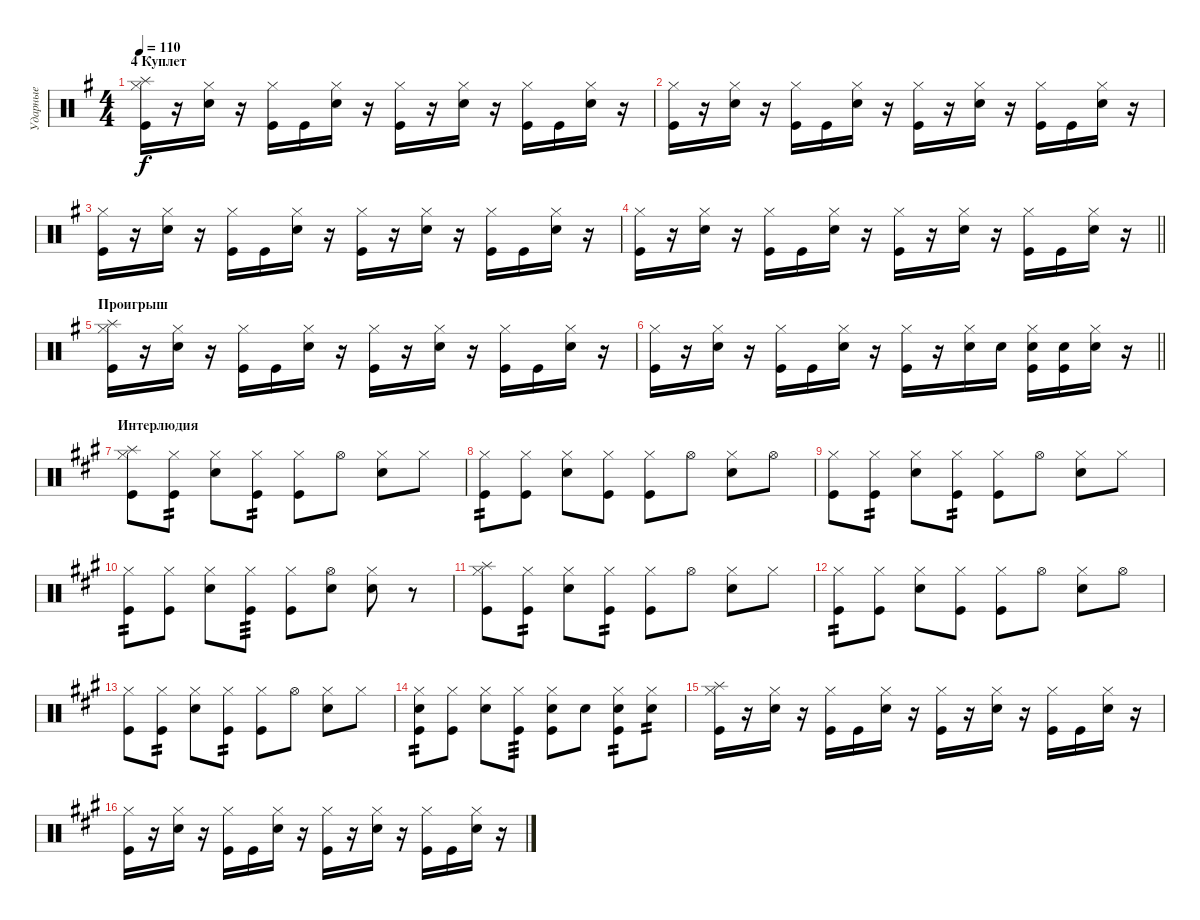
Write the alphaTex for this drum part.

\track ("Ударные" "Ударные") {instrument percussion}
\staff {score}
\articulation defaults
\ts (4 4)
\section ("" "4 Куплет")
\tempo 110
\clef neutral
\ks eminor
("Hi-Hat (closed)" "Splash (hit)" "Kick (hit)").16{dy f} r.16 ("Hi-Hat (closed)" "Electric Snare (hit)").16 r.16 ("Hi-Hat (closed)" "Kick (hit)").16 "Kick (hit)".16 ("Hi-Hat (closed)" "Electric Snare (hit)").16 r.16 ("Hi-Hat (closed)" "Kick (hit)").16 r.16 ("Hi-Hat (closed)" "Electric Snare (hit)").16 r.16 ("Hi-Hat (closed)" "Kick (hit)").16 "Kick (hit)".16 ("Hi-Hat (closed)" "Electric Snare (hit)").16 r.16 |
("Hi-Hat (closed)" "Kick (hit)").16 r.16 ("Hi-Hat (closed)" "Electric Snare (hit)").16 r.16 ("Hi-Hat (closed)" "Kick (hit)").16 "Kick (hit)".16 ("Hi-Hat (closed)" "Electric Snare (hit)").16 r.16 ("Hi-Hat (closed)" "Kick (hit)").16 r.16 ("Hi-Hat (closed)" "Electric Snare (hit)").16 r.16 ("Hi-Hat (closed)" "Kick (hit)").16 "Kick (hit)".16 ("Hi-Hat (closed)" "Electric Snare (hit)").16 r.16 |
("Hi-Hat (closed)" "Kick (hit)").16 r.16 ("Hi-Hat (closed)" "Electric Snare (hit)").16 r.16 ("Hi-Hat (closed)" "Kick (hit)").16 "Kick (hit)".16 ("Hi-Hat (closed)" "Electric Snare (hit)").16 r.16 ("Hi-Hat (closed)" "Kick (hit)").16 r.16 ("Hi-Hat (closed)" "Electric Snare (hit)").16 r.16 ("Hi-Hat (closed)" "Kick (hit)").16 "Kick (hit)".16 ("Hi-Hat (closed)" "Electric Snare (hit)").16 r.16 |
\barLineRight lightlight
("Hi-Hat (closed)" "Kick (hit)").16 r.16 ("Hi-Hat (closed)" "Electric Snare (hit)").16 r.16 ("Hi-Hat (closed)" "Kick (hit)").16 "Kick (hit)".16 ("Hi-Hat (closed)" "Electric Snare (hit)").16 r.16 ("Hi-Hat (closed)" "Kick (hit)").16 r.16 ("Hi-Hat (closed)" "Electric Snare (hit)").16 r.16 ("Hi-Hat (closed)" "Kick (hit)").16 "Kick (hit)".16 ("Hi-Hat (closed)" "Electric Snare (hit)").16 r.16 |
\section ("" "Проигрыш")
("Hi-Hat (closed)" "Splash (hit)" "Kick (hit)").16 r.16 ("Hi-Hat (closed)" "Electric Snare (hit)").16 r.16 ("Hi-Hat (closed)" "Kick (hit)").16 "Kick (hit)".16 ("Hi-Hat (closed)" "Electric Snare (hit)").16 r.16 ("Hi-Hat (closed)" "Kick (hit)").16 r.16 ("Hi-Hat (closed)" "Electric Snare (hit)").16 r.16 ("Hi-Hat (closed)" "Kick (hit)").16 "Kick (hit)".16 ("Hi-Hat (closed)" "Electric Snare (hit)").16 r.16 |
\barLineRight lightlight
("Hi-Hat (closed)" "Kick (hit)").16 r.16 ("Hi-Hat (closed)" "Electric Snare (hit)").16 r.16 ("Hi-Hat (closed)" "Kick (hit)").16 "Kick (hit)".16 ("Hi-Hat (closed)" "Electric Snare (hit)").16 r.16 ("Hi-Hat (closed)" "Kick (hit)").16 r.16 ("Hi-Hat (closed)" "Electric Snare (hit)").16 "Electric Snare (hit)".16 ("Hi-Hat (closed)" "Electric Snare (hit)" "Kick (hit)").16 ("Electric Snare (hit)" "Kick (hit)").16 ("Hi-Hat (closed)" "Electric Snare (hit)").16 r.16 |
\section ("" "Интерлюдия")
\ks f#minor
("Hi-Hat (closed)" "Splash (hit)" "Kick (hit)").8 ("Hi-Hat (closed)" "Kick (hit)").8{tp 2} ("Hi-Hat (closed)" "Electric Snare (hit)").8 ("Hi-Hat (closed)" "Kick (hit)").8{tp 2} ("Hi-Hat (closed)" "Kick (hit)").8 "Hi-Hat (open)".8 ("Hi-Hat (closed)" "Electric Snare (hit)").8 "Hi-Hat (closed)".8 |
("Hi-Hat (closed)" "Kick (hit)").8{tp 2} ("Hi-Hat (closed)" "Kick (hit)").8 ("Hi-Hat (closed)" "Electric Snare (hit)").8 ("Hi-Hat (closed)" "Kick (hit)").8 ("Hi-Hat (closed)" "Kick (hit)").8 "Hi-Hat (open)".8 ("Hi-Hat (closed)" "Electric Snare (hit)").8 "Hi-Hat (open)".8 |
("Hi-Hat (closed)" "Kick (hit)").8 ("Hi-Hat (closed)" "Kick (hit)").8{tp 2} ("Hi-Hat (closed)" "Electric Snare (hit)").8 ("Hi-Hat (closed)" "Kick (hit)").8{tp 2} ("Hi-Hat (closed)" "Kick (hit)").8 "Hi-Hat (open)".8 ("Hi-Hat (closed)" "Electric Snare (hit)").8 "Hi-Hat (closed)".8 |
("Hi-Hat (closed)" "Kick (hit)").8{tp 2} ("Hi-Hat (closed)" "Kick (hit)").8 ("Hi-Hat (closed)" "Electric Snare (hit)").8 ("Hi-Hat (closed)" "Kick (hit)").8{tp 3} ("Hi-Hat (closed)" "Kick (hit)").8 ("Hi-Hat (open)" "Electric Snare (hit)").8 ("Hi-Hat (closed)" "Electric Snare (hit)").8 r.8 |
("Hi-Hat (closed)" "Splash (hit)" "Kick (hit)").8 ("Hi-Hat (closed)" "Kick (hit)").8{tp 2} ("Hi-Hat (closed)" "Electric Snare (hit)").8 ("Hi-Hat (closed)" "Kick (hit)").8{tp 2} ("Hi-Hat (closed)" "Kick (hit)").8 "Hi-Hat (open)".8 ("Hi-Hat (closed)" "Electric Snare (hit)").8 "Hi-Hat (closed)".8 |
("Hi-Hat (closed)" "Kick (hit)").8{tp 2} ("Hi-Hat (closed)" "Kick (hit)").8 ("Hi-Hat (closed)" "Electric Snare (hit)").8 ("Hi-Hat (closed)" "Kick (hit)").8 ("Hi-Hat (closed)" "Kick (hit)").8 "Hi-Hat (open)".8 ("Hi-Hat (closed)" "Electric Snare (hit)").8 "Hi-Hat (open)".8 |
("Hi-Hat (closed)" "Kick (hit)").8 ("Hi-Hat (closed)" "Kick (hit)").8{tp 2} ("Hi-Hat (closed)" "Electric Snare (hit)").8 ("Hi-Hat (closed)" "Kick (hit)").8{tp 2} ("Hi-Hat (closed)" "Kick (hit)").8 "Hi-Hat (open)".8 ("Hi-Hat (closed)" "Electric Snare (hit)").8 "Hi-Hat (closed)".8 |
("Hi-Hat (closed)" "Electric Snare (hit)" "Kick (hit)").8{tp 2} ("Hi-Hat (closed)" "Kick (hit)").8 ("Hi-Hat (closed)" "Electric Snare (hit)").8 ("Hi-Hat (closed)" "Kick (hit)").8{tp 3} ("Hi-Hat (closed)" "Electric Snare (hit)" "Kick (hit)").8 "Electric Snare (hit)".8 ("Hi-Hat (closed)" "Electric Snare (hit)" "Kick (hit)").8{tp 2} ("Hi-Hat (closed)" "Electric Snare (hit)").8{tp 2} |
("Hi-Hat (closed)" "Splash (hit)" "Kick (hit)").16 r.16 ("Hi-Hat (closed)" "Electric Snare (hit)").16 r.16 ("Hi-Hat (closed)" "Kick (hit)").16 "Kick (hit)".16 ("Hi-Hat (closed)" "Electric Snare (hit)").16 r.16 ("Hi-Hat (closed)" "Kick (hit)").16 r.16 ("Hi-Hat (closed)" "Electric Snare (hit)").16 r.16 ("Hi-Hat (closed)" "Kick (hit)").16 "Kick (hit)".16 ("Hi-Hat (closed)" "Electric Snare (hit)").16 r.16 |
("Hi-Hat (closed)" "Kick (hit)").16 r.16 ("Hi-Hat (closed)" "Electric Snare (hit)").16 r.16 ("Hi-Hat (closed)" "Kick (hit)").16 "Kick (hit)".16 ("Hi-Hat (closed)" "Electric Snare (hit)").16 r.16 ("Hi-Hat (closed)" "Kick (hit)").16 r.16 ("Hi-Hat (closed)" "Electric Snare (hit)").16 r.16 ("Hi-Hat (closed)" "Kick (hit)").16 "Kick (hit)".16 ("Hi-Hat (closed)" "Electric Snare (hit)").16 r.16
